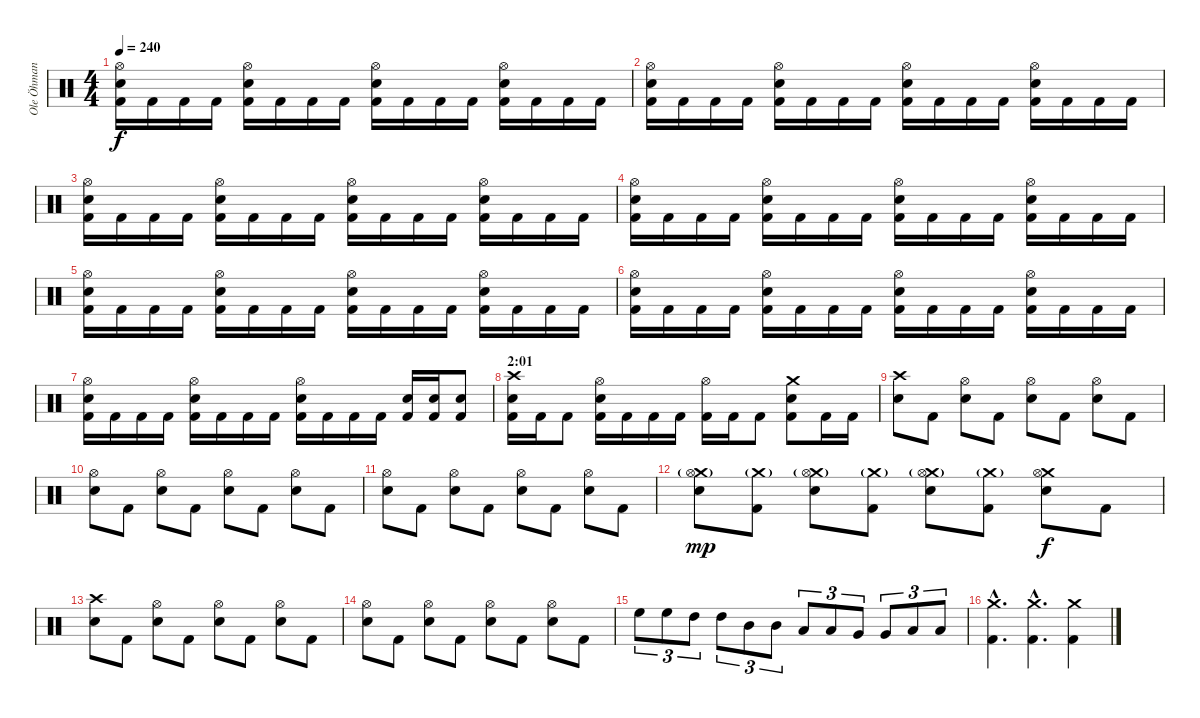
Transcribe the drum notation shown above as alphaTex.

\track ("Ole Öhman" "Ole Öhman") {instrument percussion}
\staff {score}
\articulation defaults
\ts (4 4)
\tempo 240
\clef neutral
\ks c
("Hi-Hat (open)" "Electric Snare (hit)" "Kick (hit) 2").16{dy f} "Kick (hit) 2".16 "Kick (hit) 2".16 "Kick (hit) 2".16 ("Hi-Hat (open)" "Electric Snare (hit)" "Kick (hit) 2").16 "Kick (hit) 2".16 "Kick (hit) 2".16 "Kick (hit) 2".16 ("Hi-Hat (open)" "Electric Snare (hit)" "Kick (hit) 2").16 "Kick (hit) 2".16 "Kick (hit) 2".16 "Kick (hit) 2".16 ("Hi-Hat (open)" "Electric Snare (hit)" "Kick (hit) 2").16 "Kick (hit) 2".16 "Kick (hit) 2".16 "Kick (hit) 2".16 |
("Hi-Hat (open)" "Electric Snare (hit)" "Kick (hit) 2").16 "Kick (hit) 2".16 "Kick (hit) 2".16 "Kick (hit) 2".16 ("Hi-Hat (open)" "Electric Snare (hit)" "Kick (hit) 2").16 "Kick (hit) 2".16 "Kick (hit) 2".16 "Kick (hit) 2".16 ("Hi-Hat (open)" "Electric Snare (hit)" "Kick (hit) 2").16 "Kick (hit) 2".16 "Kick (hit) 2".16 "Kick (hit) 2".16 ("Hi-Hat (open)" "Electric Snare (hit)" "Kick (hit) 2").16 "Kick (hit) 2".16 "Kick (hit) 2".16 "Kick (hit) 2".16 |
("Hi-Hat (open)" "Electric Snare (hit)" "Kick (hit) 2").16 "Kick (hit) 2".16 "Kick (hit) 2".16 "Kick (hit) 2".16 ("Hi-Hat (open)" "Electric Snare (hit)" "Kick (hit) 2").16 "Kick (hit) 2".16 "Kick (hit) 2".16 "Kick (hit) 2".16 ("Hi-Hat (open)" "Electric Snare (hit)" "Kick (hit) 2").16 "Kick (hit) 2".16 "Kick (hit) 2".16 "Kick (hit) 2".16 ("Hi-Hat (open)" "Electric Snare (hit)" "Kick (hit) 2").16 "Kick (hit) 2".16 "Kick (hit) 2".16 "Kick (hit) 2".16 |
("Hi-Hat (open)" "Electric Snare (hit)" "Kick (hit) 2").16 "Kick (hit) 2".16 "Kick (hit) 2".16 "Kick (hit) 2".16 ("Hi-Hat (open)" "Electric Snare (hit)" "Kick (hit) 2").16 "Kick (hit) 2".16 "Kick (hit) 2".16 "Kick (hit) 2".16 ("Hi-Hat (open)" "Electric Snare (hit)" "Kick (hit) 2").16 "Kick (hit) 2".16 "Kick (hit) 2".16 "Kick (hit) 2".16 ("Hi-Hat (open)" "Electric Snare (hit)" "Kick (hit) 2").16 "Kick (hit) 2".16 "Kick (hit) 2".16 "Kick (hit) 2".16 |
("Hi-Hat (open)" "Electric Snare (hit)" "Kick (hit) 2").16 "Kick (hit) 2".16 "Kick (hit) 2".16 "Kick (hit) 2".16 ("Hi-Hat (open)" "Electric Snare (hit)" "Kick (hit) 2").16 "Kick (hit) 2".16 "Kick (hit) 2".16 "Kick (hit) 2".16 ("Hi-Hat (open)" "Electric Snare (hit)" "Kick (hit) 2").16 "Kick (hit) 2".16 "Kick (hit) 2".16 "Kick (hit) 2".16 ("Hi-Hat (open)" "Electric Snare (hit)" "Kick (hit) 2").16 "Kick (hit) 2".16 "Kick (hit) 2".16 "Kick (hit) 2".16 |
("Hi-Hat (open)" "Electric Snare (hit)" "Kick (hit) 2").16 "Kick (hit) 2".16 "Kick (hit) 2".16 "Kick (hit) 2".16 ("Hi-Hat (open)" "Electric Snare (hit)" "Kick (hit) 2").16 "Kick (hit) 2".16 "Kick (hit) 2".16 "Kick (hit) 2".16 ("Hi-Hat (open)" "Electric Snare (hit)" "Kick (hit) 2").16 "Kick (hit) 2".16 "Kick (hit) 2".16 "Kick (hit) 2".16 ("Hi-Hat (open)" "Electric Snare (hit)" "Kick (hit) 2").16 "Kick (hit) 2".16 "Kick (hit) 2".16 "Kick (hit) 2".16 |
("Hi-Hat (open)" "Electric Snare (hit)" "Kick (hit) 2").16 "Kick (hit) 2".16 "Kick (hit) 2".16 "Kick (hit) 2".16 ("Hi-Hat (open)" "Electric Snare (hit)" "Kick (hit) 2").16 "Kick (hit) 2".16 "Kick (hit) 2".16 "Kick (hit) 2".16 ("Hi-Hat (open)" "Electric Snare (hit)" "Kick (hit) 2").16 "Kick (hit) 2".16 "Kick (hit) 2".16 "Kick (hit) 2".16 ("Electric Snare (hit)" "Kick (hit) 2").16 ("Electric Snare (hit)" "Kick (hit) 2").16 ("Electric Snare (hit)" "Kick (hit) 2").8 |
\section ("" "2:01")
("Crash high (hit)" "Electric Snare (hit)" "Kick (hit) 2").16 "Kick (hit) 2".16 "Kick (hit) 2".8 ("Hi-Hat (open)" "Electric Snare (hit)" "Kick (hit) 2").16 "Kick (hit) 2".16 "Kick (hit) 2".16 "Kick (hit) 2".16 ("Hi-Hat (open)" "Kick (hit) 2").16 "Kick (hit) 2".16 "Kick (hit) 2".8 ("Crash medium (hit)" "Electric Snare (hit)" "Kick (hit) 2").8 "Kick (hit) 2".16 "Kick (hit) 2".16 |
("Crash high (hit)" "Electric Snare (hit)").8 "Kick (hit) 2".8 ("Hi-Hat (open)" "Electric Snare (hit)").8 "Kick (hit) 2".8 ("Hi-Hat (open)" "Electric Snare (hit)").8 "Kick (hit) 2".8 ("Hi-Hat (open)" "Electric Snare (hit)").8 "Kick (hit) 2".8 |
("Hi-Hat (open)" "Electric Snare (hit)").8 "Kick (hit) 2".8 ("Hi-Hat (open)" "Electric Snare (hit)").8 "Kick (hit) 2".8 ("Hi-Hat (open)" "Electric Snare (hit)").8 "Kick (hit) 2".8 ("Hi-Hat (open)" "Electric Snare (hit)").8 "Kick (hit) 2".8 |
("Hi-Hat (open)" "Electric Snare (hit)").8 "Kick (hit) 2".8 ("Hi-Hat (open)" "Electric Snare (hit)").8 "Kick (hit) 2".8 ("Hi-Hat (open)" "Electric Snare (hit)").8 "Kick (hit) 2".8 ("Hi-Hat (open)" "Electric Snare (hit)").8 "Kick (hit) 2".8 |
("Crash medium (hit)"{g} "Hi-Hat (open)" "Electric Snare (hit)").8{dy mp} ("Crash medium (hit)"{g} "Kick (hit) 2").8 ("Crash medium (hit)"{g} "Hi-Hat (open)" "Electric Snare (hit)").8 ("Crash medium (hit)"{g} "Kick (hit) 2").8 ("Crash medium (hit)"{g} "Hi-Hat (open)" "Electric Snare (hit)").8 ("Crash medium (hit)"{g} "Kick (hit) 2").8 ("Crash medium (hit)" "Hi-Hat (open)" "Electric Snare (hit)").8{dy f} "Kick (hit) 2".8 |
("Crash high (hit)" "Electric Snare (hit)").8 "Kick (hit) 2".8 ("Hi-Hat (open)" "Electric Snare (hit)").8 "Kick (hit) 2".8 ("Hi-Hat (open)" "Electric Snare (hit)").8 "Kick (hit) 2".8 ("Hi-Hat (open)" "Electric Snare (hit)").8 "Kick (hit) 2".8 |
("Hi-Hat (open)" "Electric Snare (hit)").8 "Kick (hit) 2".8 ("Hi-Hat (open)" "Electric Snare (hit)").8 "Kick (hit) 2".8 ("Hi-Hat (open)" "Electric Snare (hit)").8 "Kick (hit) 2".8 ("Hi-Hat (open)" "Electric Snare (hit)").8 "Kick (hit) 2".8 |
"High Floor Tom (hit)".8{tu (3 2)} "High Floor Tom (hit)".8{tu (3 2)} "High Tom (hit)".8{tu (3 2)} "High Tom (hit)".8{tu (3 2)} "Mid Tom (hit)".8{tu (3 2)} "Mid Tom (hit)".8{tu (3 2)} "Low Tom (hit)".8{tu (3 2)} "Low Tom (hit)".8{tu (3 2)} "Very Low Tom (hit)".8{tu (3 2)} "Very Low Tom (hit)".8{tu (3 2)} "Low Floor Tom (hit)".8{tu (3 2)} "Low Floor Tom (hit)".8{tu (3 2)} |
("Crash medium (hit)"{hac} "Kick (hit) 2"{hac}).4{d} ("Crash medium (hit)"{hac} "Kick (hit) 2"{hac}).4{d} ("Crash medium (hit)" "Kick (hit) 2").4
